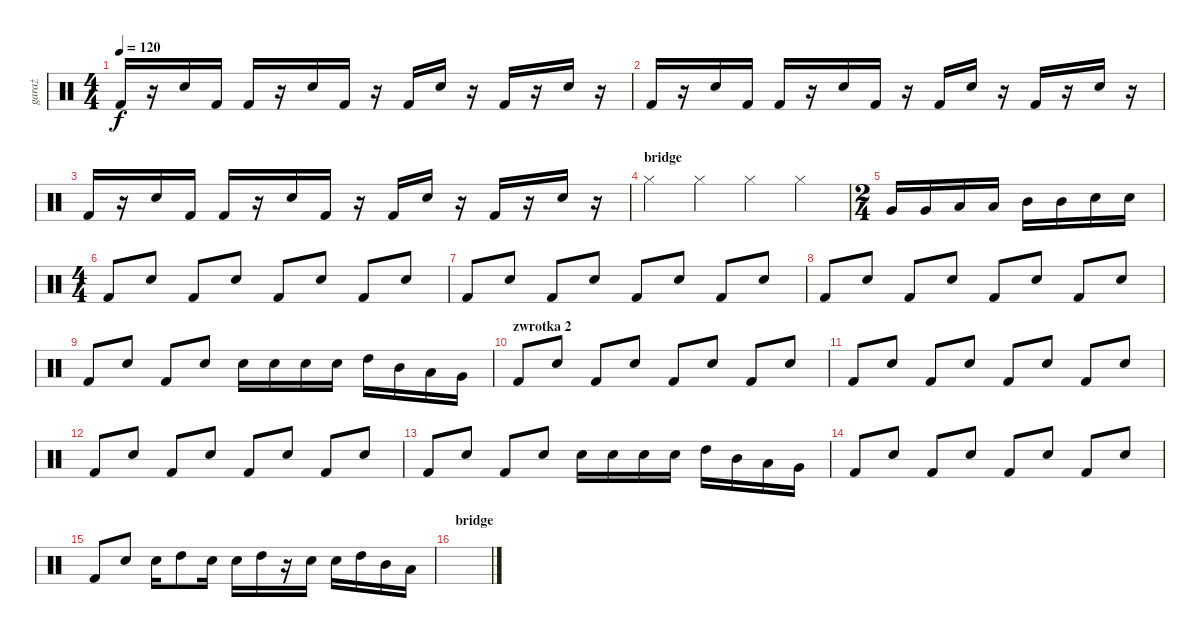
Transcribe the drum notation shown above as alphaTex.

\track ("garaż" "garaż") {instrument percussion}
\staff {score}
\articulation defaults
\ts (4 4)
\tempo 120
\clef neutral
\ks c "Kick (hit) 2".16{dy f}
r.16 "Snare (hit) 2".16 "Kick (hit) 2".16 "Kick (hit) 2".16 r.16 "Snare (hit) 2".16 "Kick (hit) 2".16 r.16 "Kick (hit) 2".16 "Snare (hit) 2".16 r.16 "Kick (hit) 2".16 r.16 "Snare (hit) 2".16 r.16 |
"Kick (hit) 2".16 r.16 "Snare (hit) 2".16 "Kick (hit) 2".16 "Kick (hit) 2".16 r.16 "Snare (hit) 2".16 "Kick (hit) 2".16 r.16 "Kick (hit) 2".16 "Snare (hit) 2".16 r.16 "Kick (hit) 2".16 r.16 "Snare (hit) 2".16 r.16 |
"Kick (hit) 2".16 r.16 "Snare (hit) 2".16 "Kick (hit) 2".16 "Kick (hit) 2".16 r.16 "Snare (hit) 2".16 "Kick (hit) 2".16 r.16 "Kick (hit) 2".16 "Snare (hit) 2".16 r.16 "Kick (hit) 2".16 r.16 "Snare (hit) 2".16 r.16 |
\section ("" "bridge")
"Hi-Hat (closed)".4 "Hi-Hat (closed)".4 "Hi-Hat (closed)".4 "Hi-Hat (closed)".4 |
\ts (2 4)
"Very Low Tom (hit)".16 "Very Low Tom (hit)".16 "Low Tom (hit)".16 "Low Tom (hit)".16 "Mid Tom (hit)".16 "Mid Tom (hit)".16 "Snare (hit) 2".16 "Snare (hit) 2".16 |
\ts (4 4)
"Kick (hit) 2".8 "Snare (hit) 2".8 "Kick (hit) 2".8 "Snare (hit) 2".8 "Kick (hit) 2".8 "Snare (hit) 2".8 "Kick (hit) 2".8 "Snare (hit) 2".8 |
"Kick (hit) 2".8 "Snare (hit) 2".8 "Kick (hit) 2".8 "Snare (hit) 2".8 "Kick (hit) 2".8 "Snare (hit) 2".8 "Kick (hit) 2".8 "Snare (hit) 2".8 |
"Kick (hit) 2".8 "Snare (hit) 2".8 "Kick (hit) 2".8 "Snare (hit) 2".8 "Kick (hit) 2".8 "Snare (hit) 2".8 "Kick (hit) 2".8 "Snare (hit) 2".8 |
"Kick (hit) 2".8 "Snare (hit) 2".8 "Kick (hit) 2".8 "Snare (hit) 2".8 "Snare (hit) 2".16 "Snare (hit) 2".16 "Snare (hit) 2".16 "Snare (hit) 2".16 "High Tom (hit)".16 "Mid Tom (hit)".16 "Low Tom (hit)".16 "Very Low Tom (hit)".16 |
\section ("" "zwrotka 2")
"Kick (hit) 2".8 "Snare (hit) 2".8 "Kick (hit) 2".8 "Snare (hit) 2".8 "Kick (hit) 2".8 "Snare (hit) 2".8 "Kick (hit) 2".8 "Snare (hit) 2".8 |
"Kick (hit) 2".8 "Snare (hit) 2".8 "Kick (hit) 2".8 "Snare (hit) 2".8 "Kick (hit) 2".8 "Snare (hit) 2".8 "Kick (hit) 2".8 "Snare (hit) 2".8 |
"Kick (hit) 2".8 "Snare (hit) 2".8 "Kick (hit) 2".8 "Snare (hit) 2".8 "Kick (hit) 2".8 "Snare (hit) 2".8 "Kick (hit) 2".8 "Snare (hit) 2".8 |
"Kick (hit) 2".8 "Snare (hit) 2".8 "Kick (hit) 2".8 "Snare (hit) 2".8 "Snare (hit) 2".16 "Snare (hit) 2".16 "Snare (hit) 2".16 "Snare (hit) 2".16 "High Tom (hit)".16 "Mid Tom (hit)".16 "Low Tom (hit)".16 "Very Low Tom (hit)".16 |
"Kick (hit) 2".8 "Snare (hit) 2".8 "Kick (hit) 2".8 "Snare (hit) 2".8 "Kick (hit) 2".8 "Snare (hit) 2".8 "Kick (hit) 2".8 "Snare (hit) 2".8 |
"Kick (hit) 2".8 "Snare (hit) 2".8 "Snare (hit) 2".16 "High Tom (hit)".8 "Snare (hit) 2".16 "Snare (hit) 2".16 "High Tom (hit)".16 r.16 "Snare (hit) 2".16 "Snare (hit) 2".16 "High Tom (hit)".16 "Mid Tom (hit)".16 "Low Tom (hit)".16 |
\section ("" "bridge")
